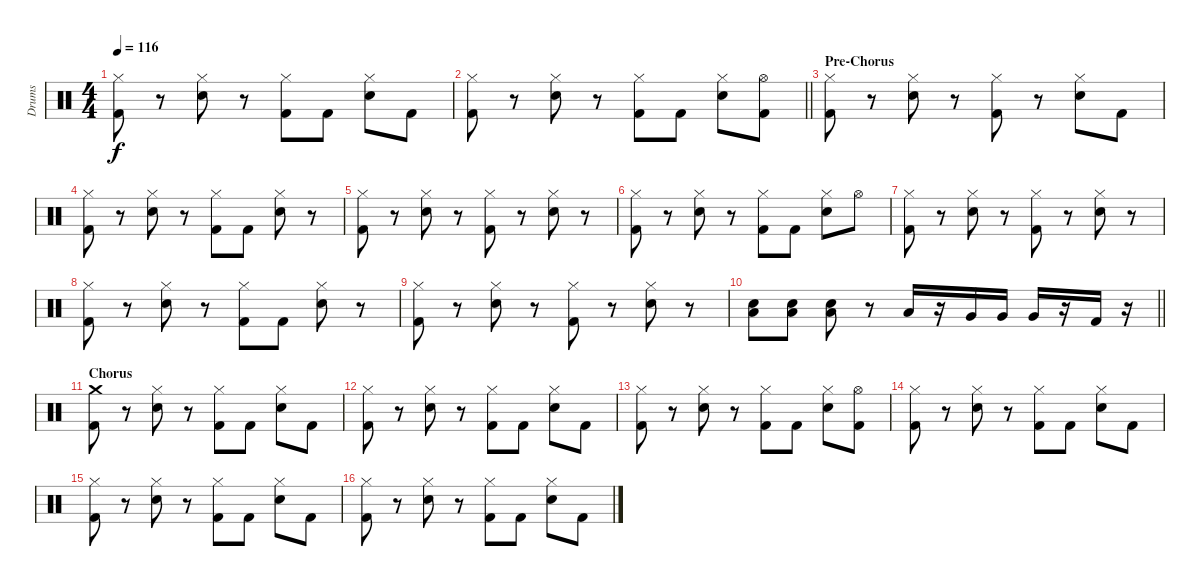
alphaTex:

\track ("Drums" "Drums") {instrument percussion}
\staff {score}
\articulation defaults
\ts (4 4)
\tempo 116
\clef neutral
\ks c
("Hi-Hat (closed)" "Kick (hit) 2").8{dy f} r.8 ("Hi-Hat (closed)" "Snare (hit) 2").8 r.8 ("Hi-Hat (closed)" "Kick (hit) 2").8 "Kick (hit) 2".8 ("Hi-Hat (closed)" "Snare (hit) 2").8 "Kick (hit) 2".8 |
\barLineRight lightlight
("Hi-Hat (closed)" "Kick (hit) 2").8 r.8 ("Hi-Hat (closed)" "Snare (hit) 2").8 r.8 ("Hi-Hat (closed)" "Kick (hit) 2").8 "Kick (hit) 2".8 ("Hi-Hat (closed)" "Snare (hit) 2").8 ("Hi-Hat (open)" "Kick (hit) 2").8 |
\section ("" "Pre-Chorus")
("Hi-Hat (closed)" "Kick (hit) 2").8 r.8 ("Hi-Hat (closed)" "Snare (hit) 2").8 r.8 ("Hi-Hat (closed)" "Kick (hit) 2").8 r.8 ("Hi-Hat (closed)" "Snare (hit) 2").8 "Kick (hit) 2".8 |
("Hi-Hat (closed)" "Kick (hit) 2").8 r.8 ("Hi-Hat (closed)" "Snare (hit) 2").8 r.8 ("Hi-Hat (closed)" "Kick (hit) 2").8 "Kick (hit) 2".8 ("Hi-Hat (closed)" "Snare (hit) 2").8 r.8 |
("Hi-Hat (closed)" "Kick (hit) 2").8 r.8 ("Hi-Hat (closed)" "Snare (hit) 2").8 r.8 ("Hi-Hat (closed)" "Kick (hit) 2").8 r.8 ("Hi-Hat (closed)" "Snare (hit) 2").8 r.8 |
("Hi-Hat (closed)" "Kick (hit) 2").8 r.8 ("Hi-Hat (closed)" "Snare (hit) 2").8 r.8 ("Hi-Hat (closed)" "Kick (hit) 2").8 "Kick (hit) 2".8 ("Hi-Hat (closed)" "Snare (hit) 2").8 "Hi-Hat (open)".8 |
("Hi-Hat (closed)" "Kick (hit) 2").8 r.8 ("Hi-Hat (closed)" "Snare (hit) 2").8 r.8 ("Hi-Hat (closed)" "Kick (hit) 2").8 r.8 ("Hi-Hat (closed)" "Snare (hit) 2").8 r.8 |
("Hi-Hat (closed)" "Kick (hit) 2").8 r.8 ("Hi-Hat (closed)" "Snare (hit) 2").8 r.8 ("Hi-Hat (closed)" "Kick (hit) 2").8 "Kick (hit) 2".8 ("Hi-Hat (closed)" "Snare (hit) 2").8 r.8 |
("Hi-Hat (closed)" "Kick (hit) 2").8 r.8 ("Hi-Hat (closed)" "Snare (hit) 2").8 r.8 ("Hi-Hat (closed)" "Kick (hit) 2").8 r.8 ("Hi-Hat (closed)" "Snare (hit) 2").8 r.8 |
\barLineRight lightlight
("Snare (hit) 2" "Low Floor Tom (hit)").8 ("Snare (hit) 2" "Low Floor Tom (hit)").8 ("Snare (hit) 2" "Low Floor Tom (hit)").8 r.8 "Low Tom (hit)".16 r.16 "Very Low Tom (hit)".16 "Very Low Tom (hit)".16 "Very Low Tom (hit)".16 r.16 "Kick (hit) 2".16 r.16 |
\section ("" "Chorus")
("Crash medium (hit)" "Kick (hit) 2").8 r.8 ("Hi-Hat (closed)" "Snare (hit) 2").8 r.8 ("Hi-Hat (closed)" "Kick (hit) 2").8 "Kick (hit) 2".8 ("Hi-Hat (closed)" "Snare (hit) 2").8 "Kick (hit) 2".8 |
("Hi-Hat (closed)" "Kick (hit) 2").8 r.8 ("Hi-Hat (closed)" "Snare (hit) 2").8 r.8 ("Hi-Hat (closed)" "Kick (hit) 2").8 "Kick (hit) 2".8 ("Hi-Hat (closed)" "Snare (hit) 2").8 "Kick (hit) 2".8 |
("Hi-Hat (closed)" "Kick (hit) 2").8 r.8 ("Hi-Hat (closed)" "Snare (hit) 2").8 r.8 ("Hi-Hat (closed)" "Kick (hit) 2").8 "Kick (hit) 2".8 ("Hi-Hat (closed)" "Snare (hit) 2").8 ("Hi-Hat (open)" "Kick (hit) 2").8 |
("Hi-Hat (closed)" "Kick (hit) 2").8 r.8 ("Hi-Hat (closed)" "Snare (hit) 2").8 r.8 ("Hi-Hat (closed)" "Kick (hit) 2").8 "Kick (hit) 2".8 ("Hi-Hat (closed)" "Snare (hit) 2").8 "Kick (hit) 2".8 |
("Hi-Hat (closed)" "Kick (hit) 2").8 r.8 ("Hi-Hat (closed)" "Snare (hit) 2").8 r.8 ("Hi-Hat (closed)" "Kick (hit) 2").8 "Kick (hit) 2".8 ("Hi-Hat (closed)" "Snare (hit) 2").8 "Kick (hit) 2".8 |
("Hi-Hat (closed)" "Kick (hit) 2").8 r.8 ("Hi-Hat (closed)" "Snare (hit) 2").8 r.8 ("Hi-Hat (closed)" "Kick (hit) 2").8 "Kick (hit) 2".8 ("Hi-Hat (closed)" "Snare (hit) 2").8 "Kick (hit) 2".8
